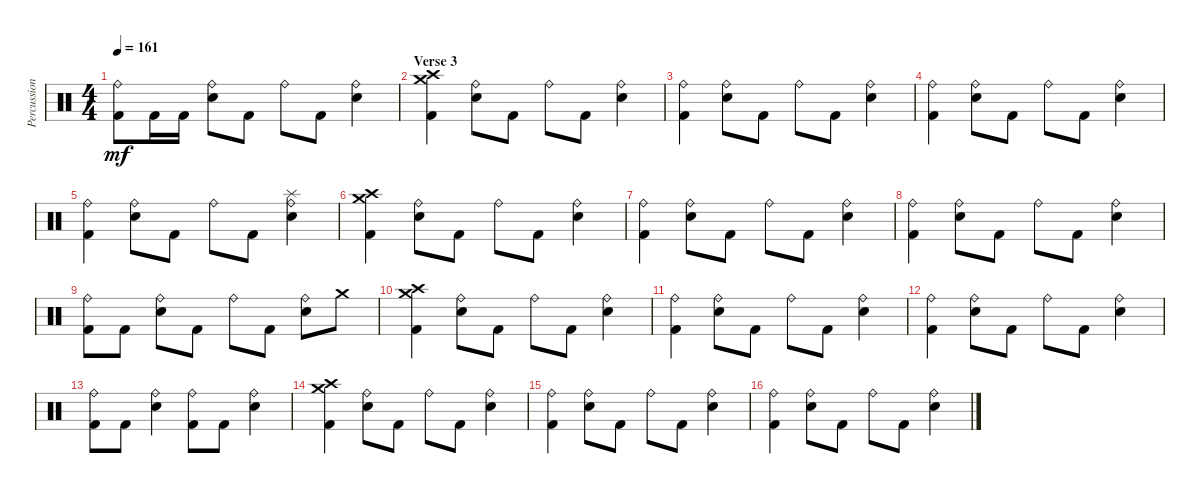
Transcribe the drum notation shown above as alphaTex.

\track ("Percussion" "Percussion") {instrument percussion}
\staff {score}
\articulation defaults
\ts (4 4)
\tempo 161
\clef neutral
\ks c
("Ride (bell)" "Kick (hit) 2").8{dy mf} "Kick (hit) 2".16 "Kick (hit) 2".16 ("Ride (bell)" "Electric Snare (hit)").8 "Kick (hit) 2".8 "Ride (bell)".8 "Kick (hit) 2".8 ("Ride (bell)" "Electric Snare (hit)").4 |
\section ("" "Verse 3")
("Crash medium (hit)" "Crash high (hit)" "Kick (hit) 2").4 ("Ride (bell)" "Electric Snare (hit)").8 "Kick (hit) 2".8 "Ride (bell)".8 "Kick (hit) 2".8 ("Ride (bell)" "Electric Snare (hit)").4 |
("Ride (bell)" "Kick (hit) 2").4 ("Ride (bell)" "Electric Snare (hit)").8 "Kick (hit) 2".8 "Ride (bell)".8 "Kick (hit) 2".8 ("Ride (bell)" "Electric Snare (hit)").4 |
("Ride (bell)" "Kick (hit) 2").4 ("Ride (bell)" "Electric Snare (hit)").8 "Kick (hit) 2".8 "Ride (bell)".8 "Kick (hit) 2".8 ("Ride (bell)" "Electric Snare (hit)").4 |
("Ride (bell)" "Kick (hit) 2").4 ("Ride (bell)" "Electric Snare (hit)").8 "Kick (hit) 2".8 "Ride (bell)".8 "Kick (hit) 2".8 ("Splash (hit)" "Ride (bell)" "Electric Snare (hit)").4 |
("Crash medium (hit)" "Crash high (hit)" "Kick (hit) 2").4 ("Ride (bell)" "Electric Snare (hit)").8 "Kick (hit) 2".8 "Ride (bell)".8 "Kick (hit) 2".8 ("Ride (bell)" "Electric Snare (hit)").4 |
("Ride (bell)" "Kick (hit) 2").4 ("Ride (bell)" "Electric Snare (hit)").8 "Kick (hit) 2".8 "Ride (bell)".8 "Kick (hit) 2".8 ("Ride (bell)" "Electric Snare (hit)").4 |
("Ride (bell)" "Kick (hit) 2").4 ("Ride (bell)" "Electric Snare (hit)").8 "Kick (hit) 2".8 "Ride (bell)".8 "Kick (hit) 2".8 ("Ride (bell)" "Electric Snare (hit)").4 |
("Ride (bell)" "Kick (hit) 2").8 "Kick (hit) 2".8 ("Ride (bell)" "Electric Snare (hit)").8 "Kick (hit) 2".8 "Ride (bell)".8 "Kick (hit) 2".8 ("Ride (bell)" "Electric Snare (hit)").8 "Crash medium (hit)".8 |
("Crash medium (hit)" "Crash high (hit)" "Kick (hit) 2").4 ("Ride (bell)" "Electric Snare (hit)").8 "Kick (hit) 2".8 "Ride (bell)".8 "Kick (hit) 2".8 ("Ride (bell)" "Electric Snare (hit)").4 |
("Ride (bell)" "Kick (hit) 2").4 ("Ride (bell)" "Electric Snare (hit)").8 "Kick (hit) 2".8 "Ride (bell)".8 "Kick (hit) 2".8 ("Ride (bell)" "Electric Snare (hit)").4 |
("Ride (bell)" "Kick (hit) 2").4 ("Ride (bell)" "Electric Snare (hit)").8 "Kick (hit) 2".8 "Ride (bell)".8 "Kick (hit) 2".8 ("Ride (bell)" "Electric Snare (hit)").4 |
("Ride (bell)" "Kick (hit) 2").8 "Kick (hit) 2".8 ("Ride (bell)" "Electric Snare (hit)").4 ("Ride (bell)" "Kick (hit) 2").8 "Kick (hit) 2".8 ("Ride (bell)" "Electric Snare (hit)").4 |
("Crash medium (hit)" "Crash high (hit)" "Kick (hit) 2").4 ("Ride (bell)" "Electric Snare (hit)").8 "Kick (hit) 2".8 "Ride (bell)".8 "Kick (hit) 2".8 ("Ride (bell)" "Electric Snare (hit)").4 |
("Ride (bell)" "Kick (hit) 2").4 ("Ride (bell)" "Electric Snare (hit)").8 "Kick (hit) 2".8 "Ride (bell)".8 "Kick (hit) 2".8 ("Ride (bell)" "Electric Snare (hit)").4 |
("Ride (bell)" "Kick (hit) 2").4 ("Ride (bell)" "Electric Snare (hit)").8 "Kick (hit) 2".8 "Ride (bell)".8 "Kick (hit) 2".8 ("Ride (bell)" "Electric Snare (hit)").4
